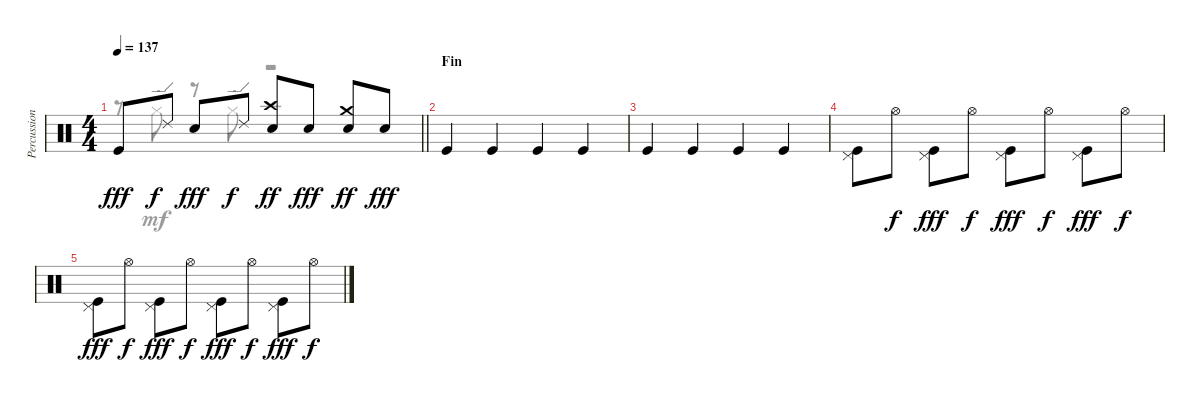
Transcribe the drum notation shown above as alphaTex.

\track ("Percussions" "Percussion") {instrument percussion}
\staff {score}
\articulation defaults
\voice
\ts (4 4)
\tempo 137
\clef neutral
\barLineRight lightlight
\ks c "Kick (hit)".8{dy fff} "Ride (edge) 2".8{dy f} "Electric Snare (hit)".8{dy fff} "Ride (edge) 2".8{dy f}
("Electric Snare (hit)" "Crash high (hit)").8{dy ff} "Electric Snare (hit)".8{dy fff} ("Electric Snare (hit)" "Crash medium (hit)").8{dy ff} "Electric Snare (hit)".8{dy fff} |
\section ("" "Fin")
"Kick (hit)".4 "Kick (hit)".4 "Kick (hit)".4 "Kick (hit)".4 |
"Kick (hit)".4 "Kick (hit)".4 "Kick (hit)".4 "Kick (hit)".4 |
("Kick (hit)" "Pedal Hi-Hat (hit)").8 "Hi-Hat (open)".8{dy f} ("Kick (hit)" "Pedal Hi-Hat (hit)").8{dy fff} "Hi-Hat (open)".8{dy f} ("Kick (hit)" "Pedal Hi-Hat (hit)").8{dy fff} "Hi-Hat (open)".8{dy f} ("Kick (hit)" "Pedal Hi-Hat (hit)").8{dy fff} "Hi-Hat (open)".8{dy f} |
("Kick (hit)" "Pedal Hi-Hat (hit)").8{dy fff} "Hi-Hat (open)".8{dy f} ("Kick (hit)" "Pedal Hi-Hat (hit)").8{dy fff} "Hi-Hat (open)".8{dy f} ("Kick (hit)" "Pedal Hi-Hat (hit)").8{dy fff} "Hi-Hat (open)".8{dy f} ("Kick (hit)" "Pedal Hi-Hat (hit)").8{dy fff} "Hi-Hat (open)".8{dy f}
\voice
\clef neutral
\ottava regular
\simile none
\barLineRight lightlight
\ks c
r.8{dy mf} "Hi-Hat (closed)".8 r.8 "Hi-Hat (closed)".8 r.2 |
|
|
|
